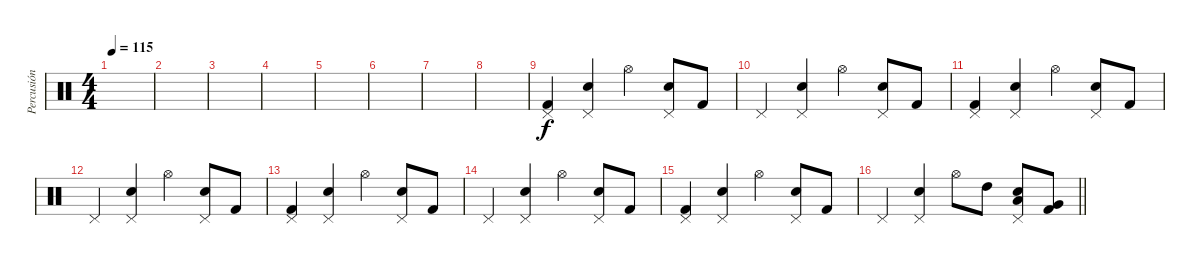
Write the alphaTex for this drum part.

\track ("Percusión" "Percusión") {instrument percussion}
\staff {score}
\articulation defaults
\ts (4 4)
\tempo 115
\clef neutral
\ks c
|
|
|
|
|
|
|
|
("Kick (hit) 2" "Pedal Hi-Hat (hit)").4 ("Snare (hit) 2" "Pedal Hi-Hat (hit)").4 "Hi-Hat (open)".4 ("Snare (hit) 2" "Pedal Hi-Hat (hit)").8 "Kick (hit) 2".8 |
"Pedal Hi-Hat (hit)".4 ("Snare (hit) 2" "Pedal Hi-Hat (hit)").4 "Hi-Hat (open)".4 ("Snare (hit) 2" "Pedal Hi-Hat (hit)").8 "Kick (hit) 2".8 |
("Kick (hit) 2" "Pedal Hi-Hat (hit)").4 ("Snare (hit) 2" "Pedal Hi-Hat (hit)").4 "Hi-Hat (open)".4 ("Snare (hit) 2" "Pedal Hi-Hat (hit)").8 "Kick (hit) 2".8 |
"Pedal Hi-Hat (hit)".4 ("Snare (hit) 2" "Pedal Hi-Hat (hit)").4 "Hi-Hat (open)".4 ("Snare (hit) 2" "Pedal Hi-Hat (hit)").8 "Kick (hit) 2".8 |
("Kick (hit) 2" "Pedal Hi-Hat (hit)").4 ("Snare (hit) 2" "Pedal Hi-Hat (hit)").4 "Hi-Hat (open)".4 ("Snare (hit) 2" "Pedal Hi-Hat (hit)").8 "Kick (hit) 2".8 |
"Pedal Hi-Hat (hit)".4 ("Snare (hit) 2" "Pedal Hi-Hat (hit)").4 "Hi-Hat (open)".4 ("Snare (hit) 2" "Pedal Hi-Hat (hit)").8 "Kick (hit) 2".8 |
("Kick (hit) 2" "Pedal Hi-Hat (hit)").4 ("Snare (hit) 2" "Pedal Hi-Hat (hit)").4 "Hi-Hat (open)".4 ("Snare (hit) 2" "Pedal Hi-Hat (hit)").8 "Kick (hit) 2".8 |
\barLineRight lightlight "Pedal Hi-Hat (hit)".4
("Snare (hit) 2" "Pedal Hi-Hat (hit)").4 "Hi-Hat (open)".8 "High Tom (hit)".8 ("Snare (hit) 2" "Low Tom (hit)" "Pedal Hi-Hat (hit)").8 ("Kick (hit) 2" "Very Low Tom (hit)").8
